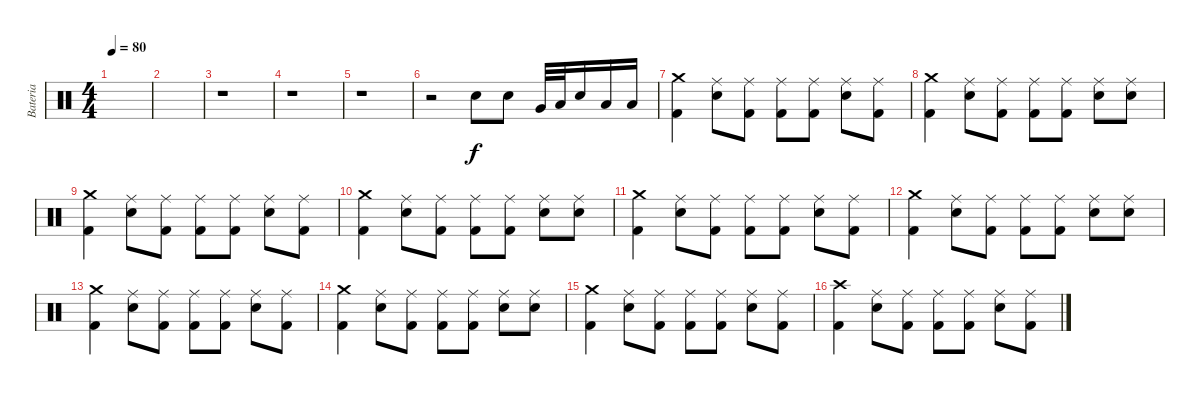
\track ("Bateria" "Bateria") {instrument percussion}
\staff {score}
\articulation defaults
\ts (4 4)
\tempo 80
\clef neutral
\ks c
|
|
r.1 |
r.1 |
r.1 |
r.2 "Snare (hit) 2".8 "Snare (hit) 2".8 "Very Low Tom (hit)".32 "Low Tom (hit)".32 "Snare (hit) 2".16 "Low Tom (hit)".16 "Low Floor Tom (hit)".16 |
("Crash medium (hit)" "Kick (hit) 2").4 ("Ride (middle)" "Snare (hit) 2").8 ("Ride (middle)" "Kick (hit) 2").8 ("Ride (middle)" "Kick (hit) 2").8 ("Ride (middle)" "Kick (hit) 2").8 ("Ride (middle)" "Snare (hit) 2").8 ("Ride (middle)" "Kick (hit) 2").8 |
("Kick (hit) 2" "Crash medium (hit)").4 ("Ride (middle)" "Snare (hit) 2").8 ("Ride (middle)" "Kick (hit) 2").8 ("Ride (middle)" "Kick (hit) 2").8 ("Ride (middle)" "Kick (hit) 2").8 ("Ride (middle)" "Snare (hit) 2").8 ("Ride (middle)" "Snare (hit) 2").8 |
("Crash medium (hit)" "Kick (hit) 2").4 ("Ride (middle)" "Snare (hit) 2").8 ("Ride (middle)" "Kick (hit) 2").8 ("Ride (middle)" "Kick (hit) 2").8 ("Ride (middle)" "Kick (hit) 2").8 ("Ride (middle)" "Snare (hit) 2").8 ("Ride (middle)" "Kick (hit) 2").8 |
("Kick (hit) 2" "Crash medium (hit)").4 ("Ride (middle)" "Snare (hit) 2").8 ("Ride (middle)" "Kick (hit) 2").8 ("Ride (middle)" "Kick (hit) 2").8 ("Ride (middle)" "Kick (hit) 2").8 ("Ride (middle)" "Snare (hit) 2").8 ("Ride (middle)" "Snare (hit) 2").8 |
("Crash medium (hit)" "Kick (hit) 2").4 ("Ride (middle)" "Snare (hit) 2").8 ("Ride (middle)" "Kick (hit) 2").8 ("Ride (middle)" "Kick (hit) 2").8 ("Ride (middle)" "Kick (hit) 2").8 ("Ride (middle)" "Snare (hit) 2").8 ("Ride (middle)" "Kick (hit) 2").8 |
("Kick (hit) 2" "Crash medium (hit)").4 ("Ride (middle)" "Snare (hit) 2").8 ("Ride (middle)" "Kick (hit) 2").8 ("Ride (middle)" "Kick (hit) 2").8 ("Ride (middle)" "Kick (hit) 2").8 ("Ride (middle)" "Snare (hit) 2").8 ("Ride (middle)" "Snare (hit) 2").8 |
("Crash medium (hit)" "Kick (hit) 2").4 ("Ride (middle)" "Snare (hit) 2").8 ("Ride (middle)" "Kick (hit) 2").8 ("Ride (middle)" "Kick (hit) 2").8 ("Ride (middle)" "Kick (hit) 2").8 ("Ride (middle)" "Snare (hit) 2").8 ("Ride (middle)" "Kick (hit) 2").8 |
("Kick (hit) 2" "Crash medium (hit)").4 ("Ride (middle)" "Snare (hit) 2").8 ("Ride (middle)" "Kick (hit) 2").8 ("Ride (middle)" "Kick (hit) 2").8 ("Ride (middle)" "Kick (hit) 2").8 ("Ride (middle)" "Snare (hit) 2").8 ("Ride (middle)" "Snare (hit) 2").8 |
("Kick (hit) 2" "Crash medium (hit)").4 ("Ride (middle)" "Snare (hit) 2").8 ("Ride (middle)" "Kick (hit) 2").8 ("Ride (middle)" "Kick (hit) 2").8 ("Ride (middle)" "Kick (hit) 2").8 ("Ride (middle)" "Snare (hit) 2").8 ("Ride (middle)" "Kick (hit) 2").8 |
("Crash high (hit)" "Kick (hit) 2").4 ("Ride (middle)" "Snare (hit) 2").8 ("Ride (middle)" "Kick (hit) 2").8 ("Ride (middle)" "Kick (hit) 2").8 ("Ride (middle)" "Kick (hit) 2").8 ("Ride (middle)" "Snare (hit) 2").8 ("Ride (middle)" "Kick (hit) 2").8
